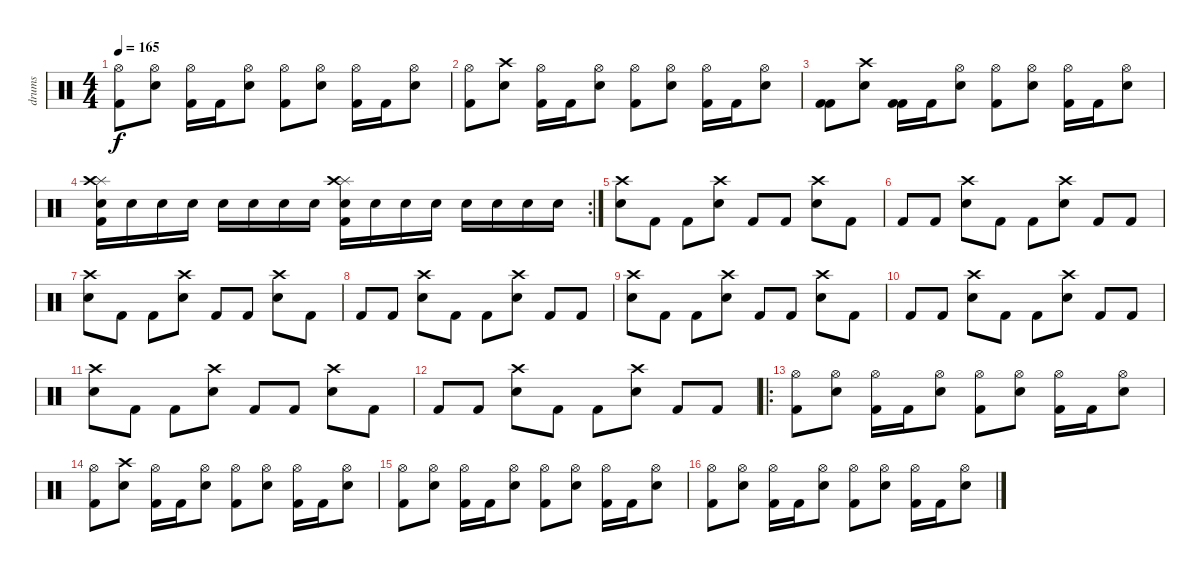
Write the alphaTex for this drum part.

\track ("drums" "drums") {instrument percussion}
\staff {score}
\articulation defaults
\ts (4 4)
\tempo 165
\clef neutral
\ks c
("Hi-Hat (open)" "Kick (hit) 2").8{dy f} ("Electric Snare (hit)" "Hi-Hat (open)").8 ("Hi-Hat (open)" "Kick (hit) 2").16 "Kick (hit) 2".16 ("Electric Snare (hit)" "Hi-Hat (open)").8 ("Hi-Hat (open)" "Kick (hit) 2").8 ("Electric Snare (hit)" "Hi-Hat (open)").8 ("Hi-Hat (open)" "Kick (hit) 2").16 "Kick (hit) 2".16 ("Electric Snare (hit)" "Hi-Hat (open)").8 |
("Hi-Hat (open)" "Kick (hit) 2").8 ("Electric Snare (hit)" "Crash high (hit)").8 ("Hi-Hat (open)" "Kick (hit) 2").16 "Kick (hit) 2".16 ("Electric Snare (hit)" "Hi-Hat (open)").8 ("Hi-Hat (open)" "Kick (hit) 2").8 ("Electric Snare (hit)" "Hi-Hat (open)").8 ("Hi-Hat (open)" "Kick (hit) 2").16 "Kick (hit) 2".16 ("Electric Snare (hit)" "Hi-Hat (open)").8 |
("Kick (hit) 2" "Kick (hit) 2").8 ("Electric Snare (hit)" "Crash high (hit)").8 ("Kick (hit) 2" "Kick (hit) 2").16 "Kick (hit) 2".16 ("Electric Snare (hit)" "Hi-Hat (open)").8 ("Hi-Hat (open)" "Kick (hit) 2").8 ("Electric Snare (hit)" "Hi-Hat (open)").8 ("Hi-Hat (open)" "Kick (hit) 2").16 "Kick (hit) 2".16 ("Electric Snare (hit)" "Hi-Hat (open)").8 |
\rc 2
("Splash (hit)" "Crash high (hit)" "Electric Snare (hit)" "Kick (hit) 2").16 "Electric Snare (hit)".16 "Electric Snare (hit)".16 "Electric Snare (hit)".16 "Electric Snare (hit)".16 "Electric Snare (hit)".16 "Electric Snare (hit)".16 "Electric Snare (hit)".16 ("Splash (hit)" "Crash high (hit)" "Kick (hit) 2" "Electric Snare (hit)").16 "Electric Snare (hit)".16 "Electric Snare (hit)".16 "Electric Snare (hit)".16 "Electric Snare (hit)".16 "Electric Snare (hit)".16 "Electric Snare (hit)".16 "Electric Snare (hit)".16 |
("Electric Snare (hit)" "Crash high (hit)").8 "Kick (hit) 2".8 "Kick (hit) 2".8 ("Electric Snare (hit)" "Crash high (hit)").8 "Kick (hit) 2".8 "Kick (hit) 2".8 ("Electric Snare (hit)" "Crash high (hit)").8 "Kick (hit) 2".8 |
"Kick (hit) 2".8 "Kick (hit) 2".8 ("Electric Snare (hit)" "Crash high (hit)").8 "Kick (hit) 2".8 "Kick (hit) 2".8 ("Electric Snare (hit)" "Crash high (hit)").8 "Kick (hit) 2".8 "Kick (hit) 2".8 |
("Electric Snare (hit)" "Crash high (hit)").8 "Kick (hit) 2".8 "Kick (hit) 2".8 ("Electric Snare (hit)" "Crash high (hit)").8 "Kick (hit) 2".8 "Kick (hit) 2".8 ("Electric Snare (hit)" "Crash high (hit)").8 "Kick (hit) 2".8 |
"Kick (hit) 2".8 "Kick (hit) 2".8 ("Electric Snare (hit)" "Crash high (hit)").8 "Kick (hit) 2".8 "Kick (hit) 2".8 ("Electric Snare (hit)" "Crash high (hit)").8 "Kick (hit) 2".8 "Kick (hit) 2".8 |
("Electric Snare (hit)" "Crash high (hit)").8 "Kick (hit) 2".8 "Kick (hit) 2".8 ("Electric Snare (hit)" "Crash high (hit)").8 "Kick (hit) 2".8 "Kick (hit) 2".8 ("Electric Snare (hit)" "Crash high (hit)").8 "Kick (hit) 2".8 |
"Kick (hit) 2".8 "Kick (hit) 2".8 ("Electric Snare (hit)" "Crash high (hit)").8 "Kick (hit) 2".8 "Kick (hit) 2".8 ("Electric Snare (hit)" "Crash high (hit)").8 "Kick (hit) 2".8 "Kick (hit) 2".8 |
("Electric Snare (hit)" "Crash high (hit)").8 "Kick (hit) 2".8 "Kick (hit) 2".8 ("Electric Snare (hit)" "Crash high (hit)").8 "Kick (hit) 2".8 "Kick (hit) 2".8 ("Electric Snare (hit)" "Crash high (hit)").8 "Kick (hit) 2".8 |
"Kick (hit) 2".8 "Kick (hit) 2".8 ("Electric Snare (hit)" "Crash high (hit)").8 "Kick (hit) 2".8 "Kick (hit) 2".8 ("Electric Snare (hit)" "Crash high (hit)").8 "Kick (hit) 2".8 "Kick (hit) 2".8 |
\ro
("Hi-Hat (open)" "Kick (hit) 2").8 ("Electric Snare (hit)" "Hi-Hat (open)").8 ("Hi-Hat (open)" "Kick (hit) 2").16 "Kick (hit) 2".16 ("Electric Snare (hit)" "Hi-Hat (open)").8 ("Hi-Hat (open)" "Kick (hit) 2").8 ("Electric Snare (hit)" "Hi-Hat (open)").8 ("Hi-Hat (open)" "Kick (hit) 2").16 "Kick (hit) 2".16 ("Electric Snare (hit)" "Hi-Hat (open)").8 |
("Hi-Hat (open)" "Kick (hit) 2").8 ("Electric Snare (hit)" "Crash high (hit)").8 ("Hi-Hat (open)" "Kick (hit) 2").16 "Kick (hit) 2".16 ("Electric Snare (hit)" "Hi-Hat (open)").8 ("Hi-Hat (open)" "Kick (hit) 2").8 ("Electric Snare (hit)" "Hi-Hat (open)").8 ("Hi-Hat (open)" "Kick (hit) 2").16 "Kick (hit) 2".16 ("Electric Snare (hit)" "Hi-Hat (open)").8 |
("Hi-Hat (open)" "Kick (hit) 2").8 ("Electric Snare (hit)" "Hi-Hat (open)").8 ("Hi-Hat (open)" "Kick (hit) 2").16 "Kick (hit) 2".16 ("Electric Snare (hit)" "Hi-Hat (open)").8 ("Hi-Hat (open)" "Kick (hit) 2").8 ("Electric Snare (hit)" "Hi-Hat (open)").8 ("Hi-Hat (open)" "Kick (hit) 2").16 "Kick (hit) 2".16 ("Electric Snare (hit)" "Hi-Hat (open)").8 |
("Hi-Hat (open)" "Kick (hit) 2").8 ("Electric Snare (hit)" "Hi-Hat (open)").8 ("Hi-Hat (open)" "Kick (hit) 2").16 "Kick (hit) 2".16 ("Electric Snare (hit)" "Hi-Hat (open)").8 ("Hi-Hat (open)" "Kick (hit) 2").8 ("Electric Snare (hit)" "Hi-Hat (open)").8 ("Hi-Hat (open)" "Kick (hit) 2").16 "Kick (hit) 2".16 ("Electric Snare (hit)" "Hi-Hat (open)").8
